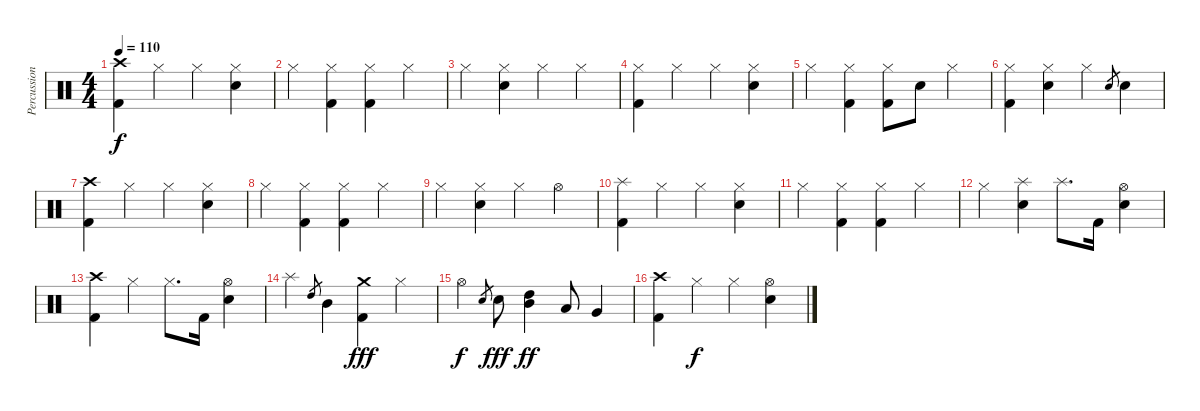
\track ("Percussion" "Percussion") {instrument percussion}
\staff {score}
\articulation defaults
\ts (4 4)
\tempo 110
\clef neutral
\ks c
("Crash high (hit)" "Kick (hit) 2").4{dy f} "Hi-Hat (closed)".4 "Hi-Hat (closed)".4 ("Hi-Hat (closed)" "Electric Snare (hit)").4 |
"Hi-Hat (closed)".4 ("Hi-Hat (closed)" "Kick (hit) 2").4 ("Hi-Hat (closed)" "Kick (hit) 2").4 "Hi-Hat (closed)".4 |
"Hi-Hat (closed)".4 ("Hi-Hat (closed)" "Electric Snare (hit)").4 "Hi-Hat (closed)".4 "Hi-Hat (closed)".4 |
("Hi-Hat (closed)" "Kick (hit) 2").4 "Hi-Hat (closed)".4 "Hi-Hat (closed)".4 ("Hi-Hat (closed)" "Electric Snare (hit)").4 |
"Hi-Hat (closed)".4 ("Hi-Hat (closed)" "Kick (hit) 2").4 ("Hi-Hat (closed)" "Kick (hit) 2").8 "Electric Snare (hit)".8 "Hi-Hat (closed)".4 |
("Hi-Hat (closed)" "Kick (hit) 2").4 ("Hi-Hat (closed)" "Electric Snare (hit)").4 "Hi-Hat (closed)".4 "Electric Snare (hit)".8{gr} "Electric Snare (hit)".4 |
("Crash high (hit)" "Kick (hit) 2").4 "Hi-Hat (closed)".4 "Hi-Hat (closed)".4 ("Hi-Hat (closed)" "Electric Snare (hit)").4 |
"Hi-Hat (closed)".4 ("Hi-Hat (closed)" "Kick (hit) 2").4 ("Hi-Hat (closed)" "Kick (hit) 2").4 "Hi-Hat (closed)".4 |
"Hi-Hat (closed)".4 ("Hi-Hat (closed)" "Electric Snare (hit)").4 "Hi-Hat (closed)".4 "Hi-Hat (open)".4 |
("Splash (hit)" "Kick (hit) 2").4 "Hi-Hat (closed)".4 "Hi-Hat (closed)".4 ("Hi-Hat (closed)" "Electric Snare (hit)").4 |
"Hi-Hat (closed)".4 ("Hi-Hat (closed)" "Kick (hit) 2").4 ("Hi-Hat (closed)" "Kick (hit) 2").4 "Hi-Hat (closed)".4 |
"Hi-Hat (closed)".4 ("Splash (hit)" "Electric Snare (hit)").4 "Splash (hit)".8{d} "Kick (hit) 2".16 ("Hi-Hat (open)" "Electric Snare (hit)").4 |
("Crash high (hit)" "Kick (hit) 2").4 "Hi-Hat (closed)".4 "Hi-Hat (closed)".8{d} "Kick (hit) 2".16 ("Hi-Hat (open)" "Electric Snare (hit)").4 |
"Splash (hit)".4 "High Tom (hit)".8{gr} "Mid Tom (hit)".4 ("Crash medium (hit)" "Kick (hit) 2").4{dy fff} "Hi-Hat (closed)".4 |
"Hi-Hat (open)".4{dy f} "Electric Snare (hit)".8{gr} "Electric Snare (hit)".8{dy fff} ("Mid Tom (hit)" "High Tom (hit)").4{dy ff} "Low Tom (hit)".8 "Very Low Tom (hit)".4 |
("Crash high (hit)" "Kick (hit) 2").4 "Hi-Hat (closed)".4{dy f} "Hi-Hat (closed)".4 ("Hi-Hat (open)" "Electric Snare (hit)").4
